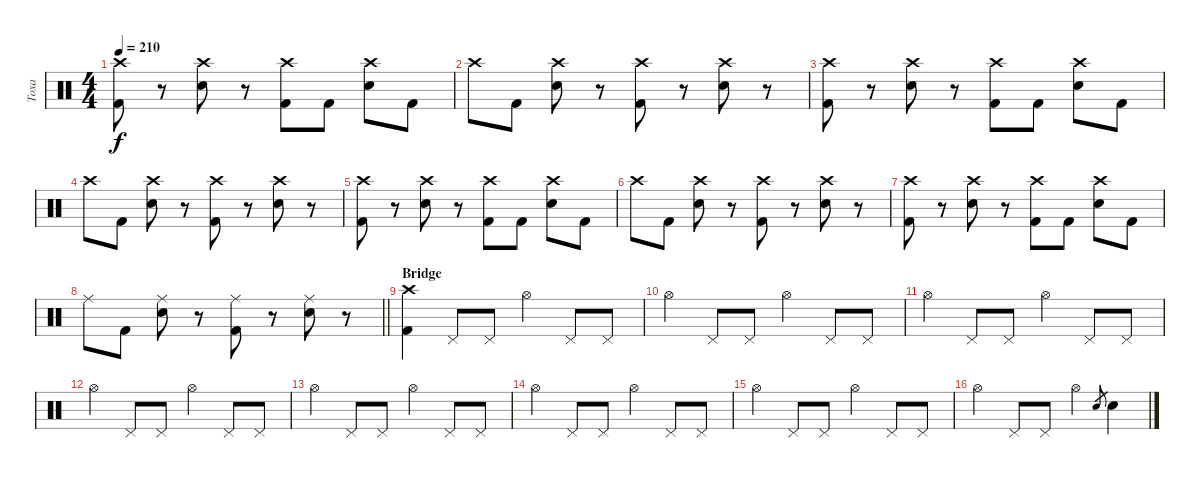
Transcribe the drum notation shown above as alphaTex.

\track ("Toxa" "Toxa") {instrument percussion}
\staff {score}
\articulation defaults
\ts (4 4)
\tempo 210
\clef neutral
\ks c
("Kick (hit) 2" "Crash high (hit)").8{dy f} r.8 ("Snare (hit) 2" "Crash high (hit)").8 r.8 ("Kick (hit) 2" "Crash high (hit)").8 "Kick (hit) 2".8 ("Snare (hit) 2" "Crash high (hit)").8 "Kick (hit) 2".8 |
"Crash high (hit)".8 "Kick (hit) 2".8 ("Snare (hit) 2" "Crash high (hit)").8 r.8 ("Kick (hit) 2" "Crash high (hit)").8 r.8 ("Snare (hit) 2" "Crash high (hit)").8 r.8 |
("Kick (hit) 2" "Crash high (hit)").8 r.8 ("Snare (hit) 2" "Crash high (hit)").8 r.8 ("Kick (hit) 2" "Crash high (hit)").8 "Kick (hit) 2".8 ("Snare (hit) 2" "Crash high (hit)").8 "Kick (hit) 2".8 |
"Crash high (hit)".8 "Kick (hit) 2".8 ("Snare (hit) 2" "Crash high (hit)").8 r.8 ("Kick (hit) 2" "Crash high (hit)").8 r.8 ("Snare (hit) 2" "Crash high (hit)").8 r.8 |
("Kick (hit) 2" "Crash high (hit)").8 r.8 ("Snare (hit) 2" "Crash high (hit)").8 r.8 ("Kick (hit) 2" "Crash high (hit)").8 "Kick (hit) 2".8 ("Snare (hit) 2" "Crash high (hit)").8 "Kick (hit) 2".8 |
"Crash high (hit)".8 "Kick (hit) 2".8 ("Snare (hit) 2" "Crash high (hit)").8 r.8 ("Kick (hit) 2" "Crash high (hit)").8 r.8 ("Snare (hit) 2" "Crash high (hit)").8 r.8 |
("Kick (hit) 2" "Crash high (hit)").8 r.8 ("Snare (hit) 2" "Crash high (hit)").8 r.8 ("Kick (hit) 2" "Crash high (hit)").8 "Kick (hit) 2".8 ("Snare (hit) 2" "Crash high (hit)").8 "Kick (hit) 2".8 |
\barLineRight lightlight "Ride (middle)".8 "Kick (hit) 2".8
("Snare (hit) 2" "Ride (middle)").8 r.8 ("Kick (hit) 2" "Ride (middle)").8 r.8 ("Snare (hit) 2" "Ride (middle)").8 r.8 |
\section ("" "Bridge")
("Crash high (hit)" "Kick (hit) 2").4 "Pedal Hi-Hat (hit)".8 "Pedal Hi-Hat (hit)".8 "Hi-Hat (open)".4 "Pedal Hi-Hat (hit)".8 "Pedal Hi-Hat (hit)".8 |
"Hi-Hat (open)".4 "Pedal Hi-Hat (hit)".8 "Pedal Hi-Hat (hit)".8 "Hi-Hat (open)".4 "Pedal Hi-Hat (hit)".8 "Pedal Hi-Hat (hit)".8 |
"Hi-Hat (open)".4 "Pedal Hi-Hat (hit)".8 "Pedal Hi-Hat (hit)".8 "Hi-Hat (open)".4 "Pedal Hi-Hat (hit)".8 "Pedal Hi-Hat (hit)".8 |
"Hi-Hat (open)".4 "Pedal Hi-Hat (hit)".8 "Pedal Hi-Hat (hit)".8 "Hi-Hat (open)".4 "Pedal Hi-Hat (hit)".8 "Pedal Hi-Hat (hit)".8 |
"Hi-Hat (open)".4 "Pedal Hi-Hat (hit)".8 "Pedal Hi-Hat (hit)".8 "Hi-Hat (open)".4 "Pedal Hi-Hat (hit)".8 "Pedal Hi-Hat (hit)".8 |
"Hi-Hat (open)".4 "Pedal Hi-Hat (hit)".8 "Pedal Hi-Hat (hit)".8 "Hi-Hat (open)".4 "Pedal Hi-Hat (hit)".8 "Pedal Hi-Hat (hit)".8 |
"Hi-Hat (open)".4 "Pedal Hi-Hat (hit)".8 "Pedal Hi-Hat (hit)".8 "Hi-Hat (open)".4 "Pedal Hi-Hat (hit)".8 "Pedal Hi-Hat (hit)".8 |
"Hi-Hat (open)".4 "Pedal Hi-Hat (hit)".8 "Pedal Hi-Hat (hit)".8 "Hi-Hat (open)".4 "Snare (hit) 2".8{gr} "Snare (hit) 2".4
